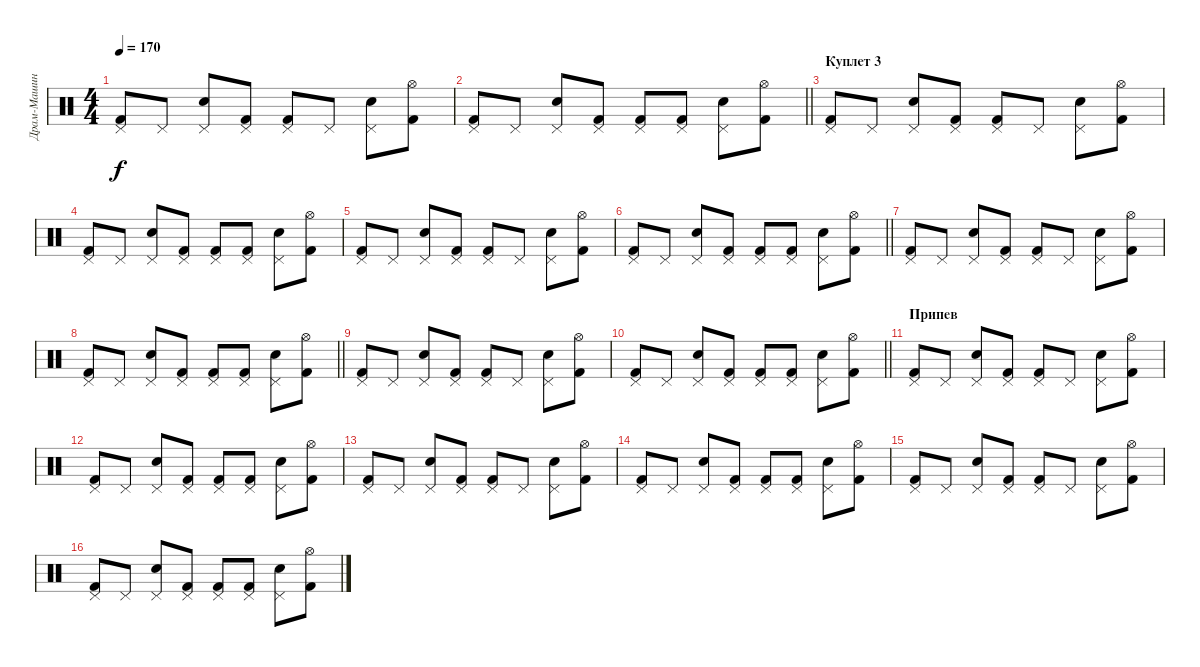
\track ("Драм-Машина" "Драм-Машин") {instrument percussion}
\staff {score}
\articulation defaults
\ts (4 4)
\tempo 170
\clef neutral
\ks c
("Pedal Hi-Hat (hit)" "Kick (hit) 2").8{dy f} "Pedal Hi-Hat (hit)".8 ("Pedal Hi-Hat (hit)" "Electric Snare (hit)").8 ("Pedal Hi-Hat (hit)" "Kick (hit) 2").8 ("Pedal Hi-Hat (hit)" "Kick (hit) 2").8 "Pedal Hi-Hat (hit)".8 ("Pedal Hi-Hat (hit)" "Electric Snare (hit)").8 ("Hi-Hat (open)" "Kick (hit) 2").8 |
\barLineRight lightlight
("Pedal Hi-Hat (hit)" "Kick (hit) 2").8 "Pedal Hi-Hat (hit)".8 ("Pedal Hi-Hat (hit)" "Electric Snare (hit)").8 ("Pedal Hi-Hat (hit)" "Kick (hit) 2").8 ("Pedal Hi-Hat (hit)" "Kick (hit) 2").8 ("Pedal Hi-Hat (hit)" "Kick (hit) 2").8 ("Pedal Hi-Hat (hit)" "Electric Snare (hit)").8 ("Hi-Hat (open)" "Kick (hit) 2").8 |
\section ("" "Куплет 3")
("Pedal Hi-Hat (hit)" "Kick (hit) 2").8 "Pedal Hi-Hat (hit)".8 ("Pedal Hi-Hat (hit)" "Electric Snare (hit)").8 ("Pedal Hi-Hat (hit)" "Kick (hit) 2").8 ("Pedal Hi-Hat (hit)" "Kick (hit) 2").8 "Pedal Hi-Hat (hit)".8 ("Pedal Hi-Hat (hit)" "Electric Snare (hit)").8 ("Hi-Hat (open)" "Kick (hit) 2").8 |
("Pedal Hi-Hat (hit)" "Kick (hit) 2").8 "Pedal Hi-Hat (hit)".8 ("Pedal Hi-Hat (hit)" "Electric Snare (hit)").8 ("Pedal Hi-Hat (hit)" "Kick (hit) 2").8 ("Pedal Hi-Hat (hit)" "Kick (hit) 2").8 ("Pedal Hi-Hat (hit)" "Kick (hit) 2").8 ("Pedal Hi-Hat (hit)" "Electric Snare (hit)").8 ("Hi-Hat (open)" "Kick (hit) 2").8 |
("Pedal Hi-Hat (hit)" "Kick (hit) 2").8 "Pedal Hi-Hat (hit)".8 ("Pedal Hi-Hat (hit)" "Electric Snare (hit)").8 ("Pedal Hi-Hat (hit)" "Kick (hit) 2").8 ("Pedal Hi-Hat (hit)" "Kick (hit) 2").8 "Pedal Hi-Hat (hit)".8 ("Pedal Hi-Hat (hit)" "Electric Snare (hit)").8 ("Hi-Hat (open)" "Kick (hit) 2").8 |
\barLineRight lightlight
("Pedal Hi-Hat (hit)" "Kick (hit) 2").8 "Pedal Hi-Hat (hit)".8 ("Pedal Hi-Hat (hit)" "Electric Snare (hit)").8 ("Pedal Hi-Hat (hit)" "Kick (hit) 2").8 ("Pedal Hi-Hat (hit)" "Kick (hit) 2").8 ("Pedal Hi-Hat (hit)" "Kick (hit) 2").8 ("Pedal Hi-Hat (hit)" "Electric Snare (hit)").8 ("Hi-Hat (open)" "Kick (hit) 2").8 |
("Pedal Hi-Hat (hit)" "Kick (hit) 2").8 "Pedal Hi-Hat (hit)".8 ("Pedal Hi-Hat (hit)" "Electric Snare (hit)").8 ("Pedal Hi-Hat (hit)" "Kick (hit) 2").8 ("Pedal Hi-Hat (hit)" "Kick (hit) 2").8 "Pedal Hi-Hat (hit)".8 ("Pedal Hi-Hat (hit)" "Electric Snare (hit)").8 ("Hi-Hat (open)" "Kick (hit) 2").8 |
\barLineRight lightlight
("Pedal Hi-Hat (hit)" "Kick (hit) 2").8 "Pedal Hi-Hat (hit)".8 ("Pedal Hi-Hat (hit)" "Electric Snare (hit)").8 ("Pedal Hi-Hat (hit)" "Kick (hit) 2").8 ("Pedal Hi-Hat (hit)" "Kick (hit) 2").8 ("Pedal Hi-Hat (hit)" "Kick (hit) 2").8 ("Pedal Hi-Hat (hit)" "Electric Snare (hit)").8 ("Hi-Hat (open)" "Kick (hit) 2").8 |
("Pedal Hi-Hat (hit)" "Kick (hit) 2").8 "Pedal Hi-Hat (hit)".8 ("Pedal Hi-Hat (hit)" "Electric Snare (hit)").8 ("Pedal Hi-Hat (hit)" "Kick (hit) 2").8 ("Pedal Hi-Hat (hit)" "Kick (hit) 2").8 "Pedal Hi-Hat (hit)".8 ("Pedal Hi-Hat (hit)" "Electric Snare (hit)").8 ("Hi-Hat (open)" "Kick (hit) 2").8 |
\barLineRight lightlight
("Pedal Hi-Hat (hit)" "Kick (hit) 2").8 "Pedal Hi-Hat (hit)".8 ("Pedal Hi-Hat (hit)" "Electric Snare (hit)").8 ("Pedal Hi-Hat (hit)" "Kick (hit) 2").8 ("Pedal Hi-Hat (hit)" "Kick (hit) 2").8 ("Pedal Hi-Hat (hit)" "Kick (hit) 2").8 ("Pedal Hi-Hat (hit)" "Electric Snare (hit)").8 ("Hi-Hat (open)" "Kick (hit) 2").8 |
\section ("" "Припев")
("Pedal Hi-Hat (hit)" "Kick (hit) 2").8 "Pedal Hi-Hat (hit)".8 ("Pedal Hi-Hat (hit)" "Electric Snare (hit)").8 ("Pedal Hi-Hat (hit)" "Kick (hit) 2").8 ("Pedal Hi-Hat (hit)" "Kick (hit) 2").8 "Pedal Hi-Hat (hit)".8 ("Pedal Hi-Hat (hit)" "Electric Snare (hit)").8 ("Hi-Hat (open)" "Kick (hit) 2").8 |
("Pedal Hi-Hat (hit)" "Kick (hit) 2").8 "Pedal Hi-Hat (hit)".8 ("Pedal Hi-Hat (hit)" "Electric Snare (hit)").8 ("Pedal Hi-Hat (hit)" "Kick (hit) 2").8 ("Pedal Hi-Hat (hit)" "Kick (hit) 2").8 ("Pedal Hi-Hat (hit)" "Kick (hit) 2").8 ("Pedal Hi-Hat (hit)" "Electric Snare (hit)").8 ("Hi-Hat (open)" "Kick (hit) 2").8 |
("Pedal Hi-Hat (hit)" "Kick (hit) 2").8 "Pedal Hi-Hat (hit)".8 ("Pedal Hi-Hat (hit)" "Electric Snare (hit)").8 ("Pedal Hi-Hat (hit)" "Kick (hit) 2").8 ("Pedal Hi-Hat (hit)" "Kick (hit) 2").8 "Pedal Hi-Hat (hit)".8 ("Pedal Hi-Hat (hit)" "Electric Snare (hit)").8 ("Hi-Hat (open)" "Kick (hit) 2").8 |
("Pedal Hi-Hat (hit)" "Kick (hit) 2").8 "Pedal Hi-Hat (hit)".8 ("Pedal Hi-Hat (hit)" "Electric Snare (hit)").8 ("Pedal Hi-Hat (hit)" "Kick (hit) 2").8 ("Pedal Hi-Hat (hit)" "Kick (hit) 2").8 ("Pedal Hi-Hat (hit)" "Kick (hit) 2").8 ("Pedal Hi-Hat (hit)" "Electric Snare (hit)").8 ("Hi-Hat (open)" "Kick (hit) 2").8 |
("Pedal Hi-Hat (hit)" "Kick (hit) 2").8 "Pedal Hi-Hat (hit)".8 ("Pedal Hi-Hat (hit)" "Electric Snare (hit)").8 ("Pedal Hi-Hat (hit)" "Kick (hit) 2").8 ("Pedal Hi-Hat (hit)" "Kick (hit) 2").8 "Pedal Hi-Hat (hit)".8 ("Pedal Hi-Hat (hit)" "Electric Snare (hit)").8 ("Hi-Hat (open)" "Kick (hit) 2").8 |
("Pedal Hi-Hat (hit)" "Kick (hit) 2").8 "Pedal Hi-Hat (hit)".8 ("Pedal Hi-Hat (hit)" "Electric Snare (hit)").8 ("Pedal Hi-Hat (hit)" "Kick (hit) 2").8 ("Pedal Hi-Hat (hit)" "Kick (hit) 2").8 ("Pedal Hi-Hat (hit)" "Kick (hit) 2").8 ("Pedal Hi-Hat (hit)" "Electric Snare (hit)").8 ("Hi-Hat (open)" "Kick (hit) 2").8
